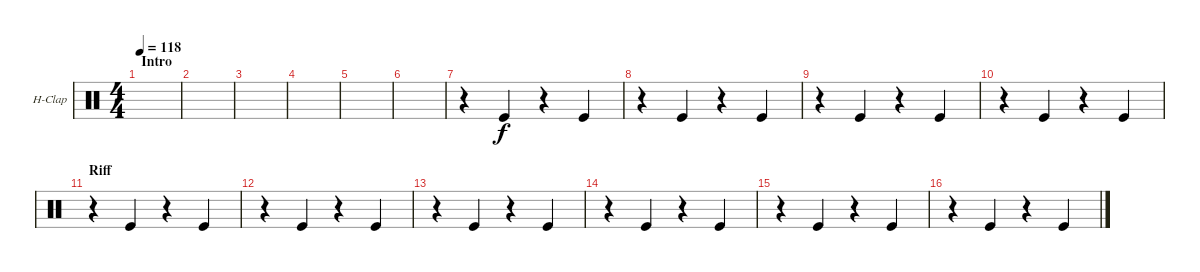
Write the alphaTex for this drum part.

\bracketExtendMode groupsimilarinstruments
\firstSystemTrackNameOrientation horizontal
\otherSystemsTrackNameOrientation horizontal
\track ("Hand Clap" "H-Clap") {instrument percussion}
\staff {score}
\articulation defaults
\ts (4 4)
\section ("" "Intro")
\tempo 118
\clef neutral
\ks c
|
|
|
|
|
|
r.4 "Kick (hit)".4 r.4 "Kick (hit)".4 |
r.4 "Kick (hit)".4 r.4 "Kick (hit)".4 |
r.4 "Kick (hit)".4 r.4 "Kick (hit)".4 |
r.4 "Kick (hit)".4 r.4 "Kick (hit)".4 |
\section ("" "Riff")
r.4 "Kick (hit)".4 r.4 "Kick (hit)".4 |
r.4 "Kick (hit)".4 r.4 "Kick (hit)".4 |
r.4 "Kick (hit)".4 r.4 "Kick (hit)".4 |
r.4 "Kick (hit)".4 r.4 "Kick (hit)".4 |
r.4 "Kick (hit)".4 r.4 "Kick (hit)".4 |
r.4 "Kick (hit)".4 r.4 "Kick (hit)".4
